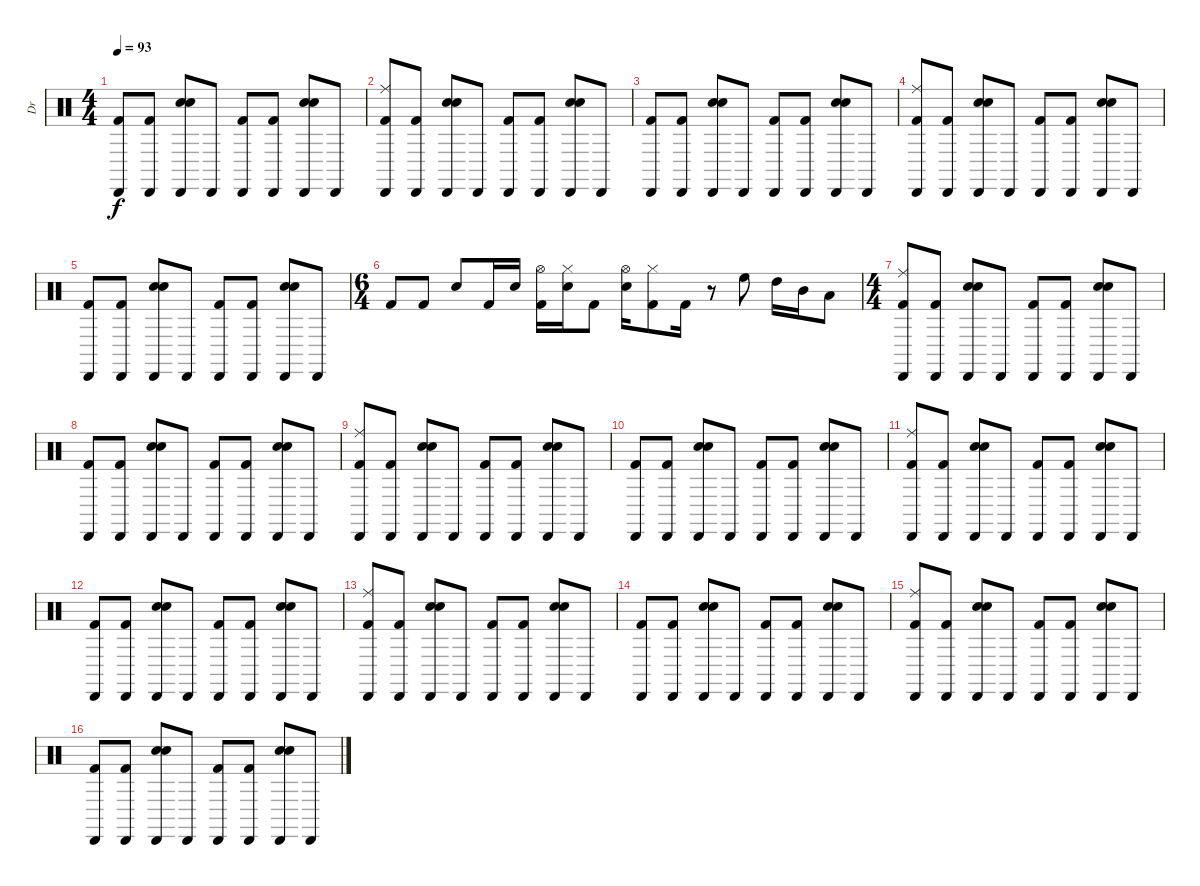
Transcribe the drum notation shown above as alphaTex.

\track ("Dr" "Dr") {instrument percussion}
\staff {score}
\articulation defaults
\ts (4 4)
\tempo 93
\clef neutral
\ks c
("Cabasa (hit)" "Kick (hit) 2").8{dy f} ("Cabasa (hit)" "Kick (hit) 2").8 ("Cabasa (hit)" "Electric Snare (hit)" "Hand Clap (hit)").8 "Cabasa (hit)".8 ("Cabasa (hit)" "Kick (hit) 2").8 ("Cabasa (hit)" "Kick (hit) 2").8 ("Cabasa (hit)" "Electric Snare (hit)" "Hand Clap (hit)").8 "Cabasa (hit)".8 |
("Ride (middle)" "Cabasa (hit)" "Kick (hit) 2").8 ("Cabasa (hit)" "Kick (hit) 2").8 ("Cabasa (hit)" "Electric Snare (hit)" "Hand Clap (hit)").8 "Cabasa (hit)".8 ("Cabasa (hit)" "Kick (hit) 2").8 ("Cabasa (hit)" "Kick (hit) 2").8 ("Cabasa (hit)" "Electric Snare (hit)" "Hand Clap (hit)").8 "Cabasa (hit)".8 |
("Cabasa (hit)" "Kick (hit) 2").8 ("Cabasa (hit)" "Kick (hit) 2").8 ("Cabasa (hit)" "Electric Snare (hit)" "Hand Clap (hit)").8 "Cabasa (hit)".8 ("Cabasa (hit)" "Kick (hit) 2").8 ("Cabasa (hit)" "Kick (hit) 2").8 ("Cabasa (hit)" "Electric Snare (hit)" "Hand Clap (hit)").8 "Cabasa (hit)".8 |
("Ride (middle)" "Cabasa (hit)" "Kick (hit) 2").8 ("Cabasa (hit)" "Kick (hit) 2").8 ("Cabasa (hit)" "Electric Snare (hit)" "Hand Clap (hit)").8 "Cabasa (hit)".8 ("Cabasa (hit)" "Kick (hit) 2").8 ("Cabasa (hit)" "Kick (hit) 2").8 ("Cabasa (hit)" "Electric Snare (hit)" "Hand Clap (hit)").8 "Cabasa (hit)".8 |
("Cabasa (hit)" "Kick (hit) 2").8 ("Cabasa (hit)" "Kick (hit) 2").8 ("Cabasa (hit)" "Electric Snare (hit)" "Hand Clap (hit)").8 "Cabasa (hit)".8 ("Cabasa (hit)" "Kick (hit) 2").8 ("Cabasa (hit)" "Kick (hit) 2").8 ("Cabasa (hit)" "Electric Snare (hit)" "Hand Clap (hit)").8 "Cabasa (hit)".8 |
\ts (6 4)
"Kick (hit) 2".8 "Kick (hit) 2".8 "Electric Snare (hit)".8 "Kick (hit) 2".16 "Electric Snare (hit)".16 ("Hi-Hat (open)" "Kick (hit) 2").16 ("Hi-Hat (closed)" "Electric Snare (hit)").16 "Kick (hit) 2".8 ("Hi-Hat (open)" "Electric Snare (hit)").16 ("Hi-Hat (closed)" "Kick (hit) 2").8 "Kick (hit) 2".16 r.8 "High Floor Tom (hit)".8 "High Tom (hit)".16 "Mid Tom (hit)".16 "Low Tom (hit)".8 |
\ts (4 4)
("Ride (middle)" "Cabasa (hit)" "Kick (hit) 2").8 ("Cabasa (hit)" "Kick (hit) 2").8 ("Cabasa (hit)" "Electric Snare (hit)" "Hand Clap (hit)").8 "Cabasa (hit)".8 ("Cabasa (hit)" "Kick (hit) 2").8 ("Cabasa (hit)" "Kick (hit) 2").8 ("Cabasa (hit)" "Electric Snare (hit)" "Hand Clap (hit)").8 "Cabasa (hit)".8 |
("Cabasa (hit)" "Kick (hit) 2").8 ("Cabasa (hit)" "Kick (hit) 2").8 ("Cabasa (hit)" "Electric Snare (hit)" "Hand Clap (hit)").8 "Cabasa (hit)".8 ("Cabasa (hit)" "Kick (hit) 2").8 ("Cabasa (hit)" "Kick (hit) 2").8 ("Cabasa (hit)" "Electric Snare (hit)" "Hand Clap (hit)").8 "Cabasa (hit)".8 |
("Ride (middle)" "Cabasa (hit)" "Kick (hit) 2").8 ("Cabasa (hit)" "Kick (hit) 2").8 ("Cabasa (hit)" "Electric Snare (hit)" "Hand Clap (hit)").8 "Cabasa (hit)".8 ("Cabasa (hit)" "Kick (hit) 2").8 ("Cabasa (hit)" "Kick (hit) 2").8 ("Cabasa (hit)" "Electric Snare (hit)" "Hand Clap (hit)").8 "Cabasa (hit)".8 |
("Cabasa (hit)" "Kick (hit) 2").8 ("Cabasa (hit)" "Kick (hit) 2").8 ("Cabasa (hit)" "Electric Snare (hit)" "Hand Clap (hit)").8 "Cabasa (hit)".8 ("Cabasa (hit)" "Kick (hit) 2").8 ("Cabasa (hit)" "Kick (hit) 2").8 ("Cabasa (hit)" "Electric Snare (hit)" "Hand Clap (hit)").8 "Cabasa (hit)".8 |
("Ride (middle)" "Cabasa (hit)" "Kick (hit) 2").8 ("Cabasa (hit)" "Kick (hit) 2").8 ("Cabasa (hit)" "Electric Snare (hit)" "Hand Clap (hit)").8 "Cabasa (hit)".8 ("Cabasa (hit)" "Kick (hit) 2").8 ("Cabasa (hit)" "Kick (hit) 2").8 ("Cabasa (hit)" "Electric Snare (hit)" "Hand Clap (hit)").8 "Cabasa (hit)".8 |
("Cabasa (hit)" "Kick (hit) 2").8 ("Cabasa (hit)" "Kick (hit) 2").8 ("Cabasa (hit)" "Electric Snare (hit)" "Hand Clap (hit)").8 "Cabasa (hit)".8 ("Cabasa (hit)" "Kick (hit) 2").8 ("Cabasa (hit)" "Kick (hit) 2").8 ("Cabasa (hit)" "Electric Snare (hit)" "Hand Clap (hit)").8 "Cabasa (hit)".8 |
("Ride (middle)" "Cabasa (hit)" "Kick (hit) 2").8 ("Cabasa (hit)" "Kick (hit) 2").8 ("Cabasa (hit)" "Electric Snare (hit)" "Hand Clap (hit)").8 "Cabasa (hit)".8 ("Cabasa (hit)" "Kick (hit) 2").8 ("Cabasa (hit)" "Kick (hit) 2").8 ("Cabasa (hit)" "Electric Snare (hit)" "Hand Clap (hit)").8 "Cabasa (hit)".8 |
("Cabasa (hit)" "Kick (hit) 2").8 ("Cabasa (hit)" "Kick (hit) 2").8 ("Cabasa (hit)" "Electric Snare (hit)" "Hand Clap (hit)").8 "Cabasa (hit)".8 ("Cabasa (hit)" "Kick (hit) 2").8 ("Cabasa (hit)" "Kick (hit) 2").8 ("Cabasa (hit)" "Electric Snare (hit)" "Hand Clap (hit)").8 "Cabasa (hit)".8 |
("Ride (middle)" "Cabasa (hit)" "Kick (hit) 2").8 ("Cabasa (hit)" "Kick (hit) 2").8 ("Cabasa (hit)" "Electric Snare (hit)" "Hand Clap (hit)").8 "Cabasa (hit)".8 ("Cabasa (hit)" "Kick (hit) 2").8 ("Cabasa (hit)" "Kick (hit) 2").8 ("Cabasa (hit)" "Electric Snare (hit)" "Hand Clap (hit)").8 "Cabasa (hit)".8 |
("Cabasa (hit)" "Kick (hit) 2").8 ("Cabasa (hit)" "Kick (hit) 2").8 ("Cabasa (hit)" "Electric Snare (hit)" "Hand Clap (hit)").8 "Cabasa (hit)".8 ("Cabasa (hit)" "Kick (hit) 2").8 ("Cabasa (hit)" "Kick (hit) 2").8 ("Cabasa (hit)" "Electric Snare (hit)" "Hand Clap (hit)").8 "Cabasa (hit)".8
